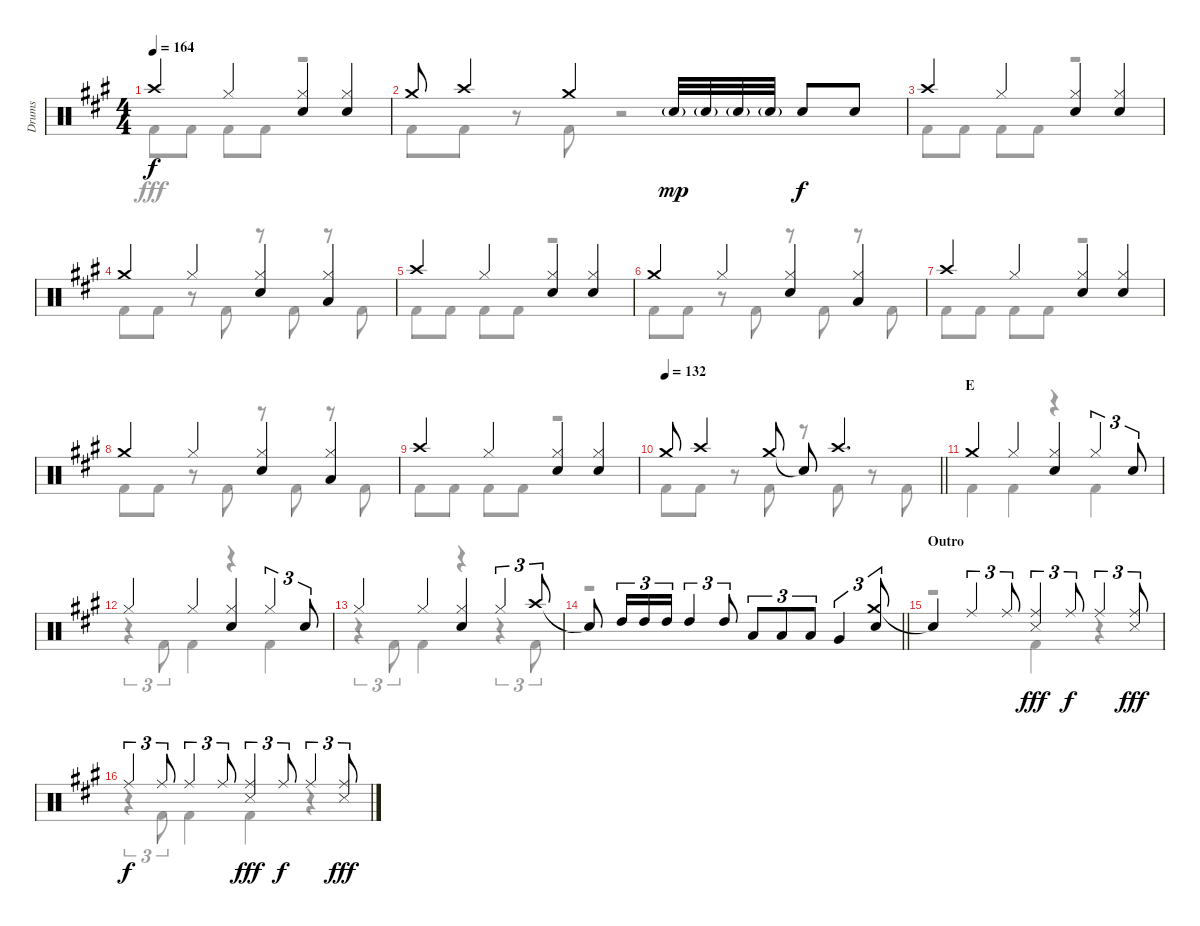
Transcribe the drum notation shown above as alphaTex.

\track ("Drums" "Drums") {instrument percussion}
\staff {score}
\articulation defaults
\voice
\ts (4 4)
\tempo 164
\clef neutral
\ks a "Crash high (hit)".4{dy f} "Hi-Hat (closed)".4
("Hi-Hat (closed)" "Snare (hit) 2").4 ("Hi-Hat (closed)" "Snare (hit) 2").4 |
"Crash medium (hit)".8 "Crash high (hit)".4 "Crash medium (hit)".4 "Snare (hit) 2"{g}.32{dy mp} "Snare (hit) 2"{g}.32 "Snare (hit) 2"{g}.32 "Snare (hit) 2"{g}.32 "Snare (hit) 2".8{dy f} "Snare (hit) 2".8 |
"Crash high (hit)".4 "Hi-Hat (closed)".4 ("Hi-Hat (closed)" "Snare (hit) 2").4 ("Hi-Hat (closed)" "Snare (hit) 2").4 |
"Crash medium (hit)".4 "Hi-Hat (closed)".4 ("Hi-Hat (closed)" "Snare (hit) 2").4 ("Hi-Hat (closed)" "Low Tom (hit)").4 |
"Crash high (hit)".4 "Hi-Hat (closed)".4 ("Hi-Hat (closed)" "Snare (hit) 2").4 ("Hi-Hat (closed)" "Snare (hit) 2").4 |
"Crash medium (hit)".4 "Hi-Hat (closed)".4 ("Hi-Hat (closed)" "Snare (hit) 2").4 ("Hi-Hat (closed)" "Low Tom (hit)").4 |
"Crash high (hit)".4 "Hi-Hat (closed)".4 ("Hi-Hat (closed)" "Snare (hit) 2").4 ("Hi-Hat (closed)" "Snare (hit) 2").4 |
"Crash medium (hit)".4 "Hi-Hat (closed)".4 ("Hi-Hat (closed)" "Snare (hit) 2").4 ("Hi-Hat (closed)" "Low Tom (hit)").4 |
"Crash high (hit)".4 "Hi-Hat (closed)".4 ("Hi-Hat (closed)" "Snare (hit) 2").4 ("Hi-Hat (closed)" "Snare (hit) 2").4 |
\tempo 132
\barLineRight lightlight "Crash medium (hit)".8 "Crash high (hit)".4 "Crash medium (hit)".8 "Snare (hit)"{t}.8 "Crash high (hit)".4{d}
|
\section ("" "E")
"Crash medium (hit)".4 "Hi-Hat (closed)".4 ("Hi-Hat (closed)" "Snare (hit) 2").4 "Hi-Hat (closed)".4{tu (3 2)} "Snare (hit) 2".8{tu (3 2)} |
"Hi-Hat (closed)".4 "Hi-Hat (closed)".4 ("Hi-Hat (closed)" "Snare (hit) 2").4 "Hi-Hat (closed)".4{tu (3 2)} "Snare (hit) 2".8{tu (3 2)} |
"Hi-Hat (closed)".4 "Hi-Hat (closed)".4 ("Hi-Hat (closed)" "Snare (hit) 2").4 "Hi-Hat (closed)".4{tu (3 2)} "Crash high (hit)".8{tu (3 2)} |
\barLineRight lightlight "Snare (hit)"{t}.8 "High Tom (hit)".16{tu (3 2)} "High Tom (hit)".16{tu (3 2)} "High Tom (hit)".16{tu (3 2)} "High Tom (hit)".4{tu (3 2)} "High Tom (hit)".8{tu (3 2)} "Low Tom (hit)".8{tu (3 2)} "Low Tom (hit)".8{tu (3 2)} "Low Tom (hit)".8{tu (3 2)} "Very Low Tom (hit)".4{tu (3 2)}
("Crash medium (hit)" "Snare (hit) 2").8{tu (3 2)} |
\section ("" "Outro")
"Snare (hit)"{t}.4 "Ride (middle)".4{tu (3 2)} "Ride (middle)".8{tu (3 2)} ("Ride (middle)" "Snare (side stick) 3").4{tu (3 2) dy fff} "Ride (middle)".8{tu (3 2) dy f} "Ride (middle)".4{tu (3 2)} ("Ride (middle)" "Snare (side stick) 3").8{tu (3 2) dy fff} |
"Ride (middle)".4{tu (3 2) dy f} "Ride (middle)".8{tu (3 2)} "Ride (middle)".4{tu (3 2)} "Ride (middle)".8{tu (3 2)} ("Ride (middle)" "Snare (side stick) 3").4{tu (3 2) dy fff} "Ride (middle)".8{tu (3 2) dy f} "Ride (middle)".4{tu (3 2)} ("Ride (middle)" "Snare (side stick) 3").8{tu (3 2) dy fff}
\voice
\clef neutral
\ottava regular
\simile none
\ks a "Kick (hit) 2".8{dy fff} "Kick (hit) 2".8 "Kick (hit) 2".8 "Kick (hit) 2".8
r.2 |
"Kick (hit) 2".8 "Kick (hit) 2".8 r.8 "Kick (hit) 2".8 r.2 |
"Kick (hit) 2".8 "Kick (hit) 2".8 "Kick (hit) 2".8 "Kick (hit) 2".8 r.2 |
"Kick (hit) 2".8 "Kick (hit) 2".8 r.8 "Kick (hit) 2".8 r.8 "Kick (hit) 2".8 r.8 "Kick (hit) 2".8 |
"Kick (hit) 2".8 "Kick (hit) 2".8 "Kick (hit) 2".8 "Kick (hit) 2".8 r.2 |
"Kick (hit) 2".8 "Kick (hit) 2".8 r.8 "Kick (hit) 2".8 r.8 "Kick (hit) 2".8 r.8 "Kick (hit) 2".8 |
"Kick (hit) 2".8 "Kick (hit) 2".8 "Kick (hit) 2".8 "Kick (hit) 2".8 r.2 |
"Kick (hit) 2".8 "Kick (hit) 2".8 r.8 "Kick (hit) 2".8 r.8 "Kick (hit) 2".8 r.8 "Kick (hit) 2".8 |
"Kick (hit) 2".8 "Kick (hit) 2".8 "Kick (hit) 2".8 "Kick (hit) 2".8 r.2 |
\barLineRight lightlight "Kick (hit) 2".8 "Kick (hit) 2".8
r.8 "Kick (hit) 2".8 r.8 "Kick (hit) 2".8 r.8 "Kick (hit) 2".8 |
"Kick (hit) 2".4 "Kick (hit) 2".4 r.4 "Kick (hit) 2".4 |
r.4{tu (3 2)} "Kick (hit) 2".8{tu (3 2)} "Kick (hit) 2".4 r.4 "Kick (hit) 2".4 |
r.4{tu (3 2)} "Kick (hit) 2".8{tu (3 2)} "Kick (hit) 2".4 r.4 r.4{tu (3 2)} "Kick (hit) 2".8{tu (3 2)} |
\barLineRight lightlight
r.1 |
r.2 "Kick (hit) 2".4 r.4 |
r.4{tu (3 2)} "Kick (hit) 2".8{tu (3 2)} "Kick (hit) 2".4 "Kick (hit) 2".4 r.4
